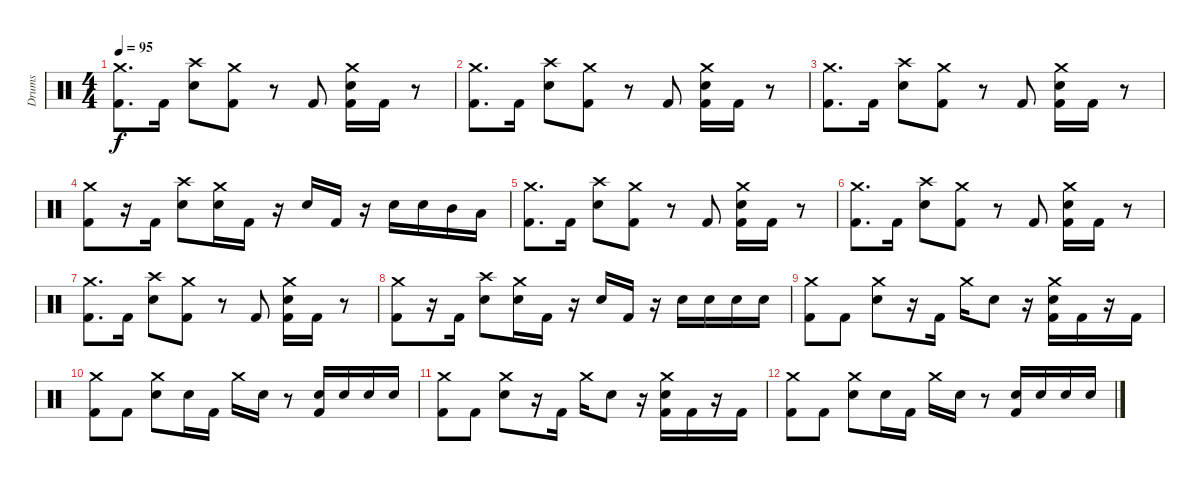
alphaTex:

\track ("Drums" "Drums") {instrument percussion}
\staff {score}
\articulation defaults
\ts (4 4)
\tempo 95
\clef neutral
\ks c
("Crash medium (hit)" "Kick (hit) 2").8{d dy f} "Kick (hit) 2".16 ("Crash high (hit)" "Electric Snare (hit)").8 ("Crash medium (hit)" "Kick (hit) 2").8 r.8 "Kick (hit) 2".8 ("Crash medium (hit)" "Electric Snare (hit)" "Kick (hit) 2").16 "Kick (hit) 2".16 r.8 |
("Crash medium (hit)" "Kick (hit) 2").8{d} "Kick (hit) 2".16 ("Crash high (hit)" "Electric Snare (hit)").8 ("Crash medium (hit)" "Kick (hit) 2").8 r.8 "Kick (hit) 2".8 ("Crash medium (hit)" "Electric Snare (hit)" "Kick (hit) 2").16 "Kick (hit) 2".16 r.8 |
("Crash medium (hit)" "Kick (hit) 2").8{d} "Kick (hit) 2".16 ("Crash high (hit)" "Electric Snare (hit)").8 ("Crash medium (hit)" "Kick (hit) 2").8 r.8 "Kick (hit) 2".8 ("Crash medium (hit)" "Electric Snare (hit)" "Kick (hit) 2").16 "Kick (hit) 2".16 r.8 |
("Crash medium (hit)" "Kick (hit) 2").8 r.16 "Kick (hit) 2".16 ("Crash high (hit)" "Electric Snare (hit)").8 ("Crash medium (hit)" "Electric Snare (hit)").16 "Kick (hit) 2".16 r.16 "Electric Snare (hit)".16 "Kick (hit) 2".16 r.16 "Electric Snare (hit)".16 "Electric Snare (hit)".16 "Mid Tom (hit)".16 "Low Tom (hit)".16 |
("Crash medium (hit)" "Kick (hit) 2").8{d} "Kick (hit) 2".16 ("Crash high (hit)" "Electric Snare (hit)").8 ("Crash medium (hit)" "Kick (hit) 2").8 r.8 "Kick (hit) 2".8 ("Crash medium (hit)" "Electric Snare (hit)" "Kick (hit) 2").16 "Kick (hit) 2".16 r.8 |
("Crash medium (hit)" "Kick (hit) 2").8{d} "Kick (hit) 2".16 ("Crash high (hit)" "Electric Snare (hit)").8 ("Crash medium (hit)" "Kick (hit) 2").8 r.8 "Kick (hit) 2".8 ("Crash medium (hit)" "Electric Snare (hit)" "Kick (hit) 2").16 "Kick (hit) 2".16 r.8 |
("Crash medium (hit)" "Kick (hit) 2").8{d} "Kick (hit) 2".16 ("Crash high (hit)" "Electric Snare (hit)").8 ("Crash medium (hit)" "Kick (hit) 2").8 r.8 "Kick (hit) 2".8 ("Crash medium (hit)" "Electric Snare (hit)" "Kick (hit) 2").16 "Kick (hit) 2".16 r.8 |
("Crash medium (hit)" "Kick (hit) 2").8 r.16 "Kick (hit) 2".16 ("Crash high (hit)" "Electric Snare (hit)").8 ("Crash medium (hit)" "Electric Snare (hit)").16 "Kick (hit) 2".16 r.16 "Electric Snare (hit)".16 "Kick (hit) 2".16 r.16 "Electric Snare (hit)".16 "Electric Snare (hit)".16 "Electric Snare (hit)".16 "Electric Snare (hit)".16 |
("Crash medium (hit)" "Kick (hit) 2").8 "Kick (hit) 2".8 ("Crash medium (hit)" "Electric Snare (hit)").8 r.16 "Kick (hit) 2".16 "Crash medium (hit)".16 "Electric Snare (hit)".8 r.16 ("Crash medium (hit)" "Electric Snare (hit)" "Kick (hit) 2").16 "Kick (hit) 2".16 r.16 "Kick (hit) 2".16 |
("Crash medium (hit)" "Kick (hit) 2").8 "Kick (hit) 2".8 ("Crash medium (hit)" "Electric Snare (hit)").8 "Electric Snare (hit)".16 "Kick (hit) 2".16 "Crash medium (hit)".16 "Electric Snare (hit)".16 r.8 ("Electric Snare (hit)" "Kick (hit) 2").16 "Electric Snare (hit)".16 "Electric Snare (hit)".16 "Electric Snare (hit)".16 |
("Crash medium (hit)" "Kick (hit) 2").8 "Kick (hit) 2".8 ("Crash medium (hit)" "Electric Snare (hit)").8 r.16 "Kick (hit) 2".16 "Crash medium (hit)".16 "Electric Snare (hit)".8 r.16 ("Crash medium (hit)" "Electric Snare (hit)" "Kick (hit) 2").16 "Kick (hit) 2".16 r.16 "Kick (hit) 2".16 |
("Crash medium (hit)" "Kick (hit) 2").8 "Kick (hit) 2".8 ("Crash medium (hit)" "Electric Snare (hit)").8 "Electric Snare (hit)".16 "Kick (hit) 2".16 "Crash medium (hit)".16 "Electric Snare (hit)".16 r.8 ("Electric Snare (hit)" "Kick (hit) 2").16 "Electric Snare (hit)".16 "Electric Snare (hit)".16 "Electric Snare (hit)".16
